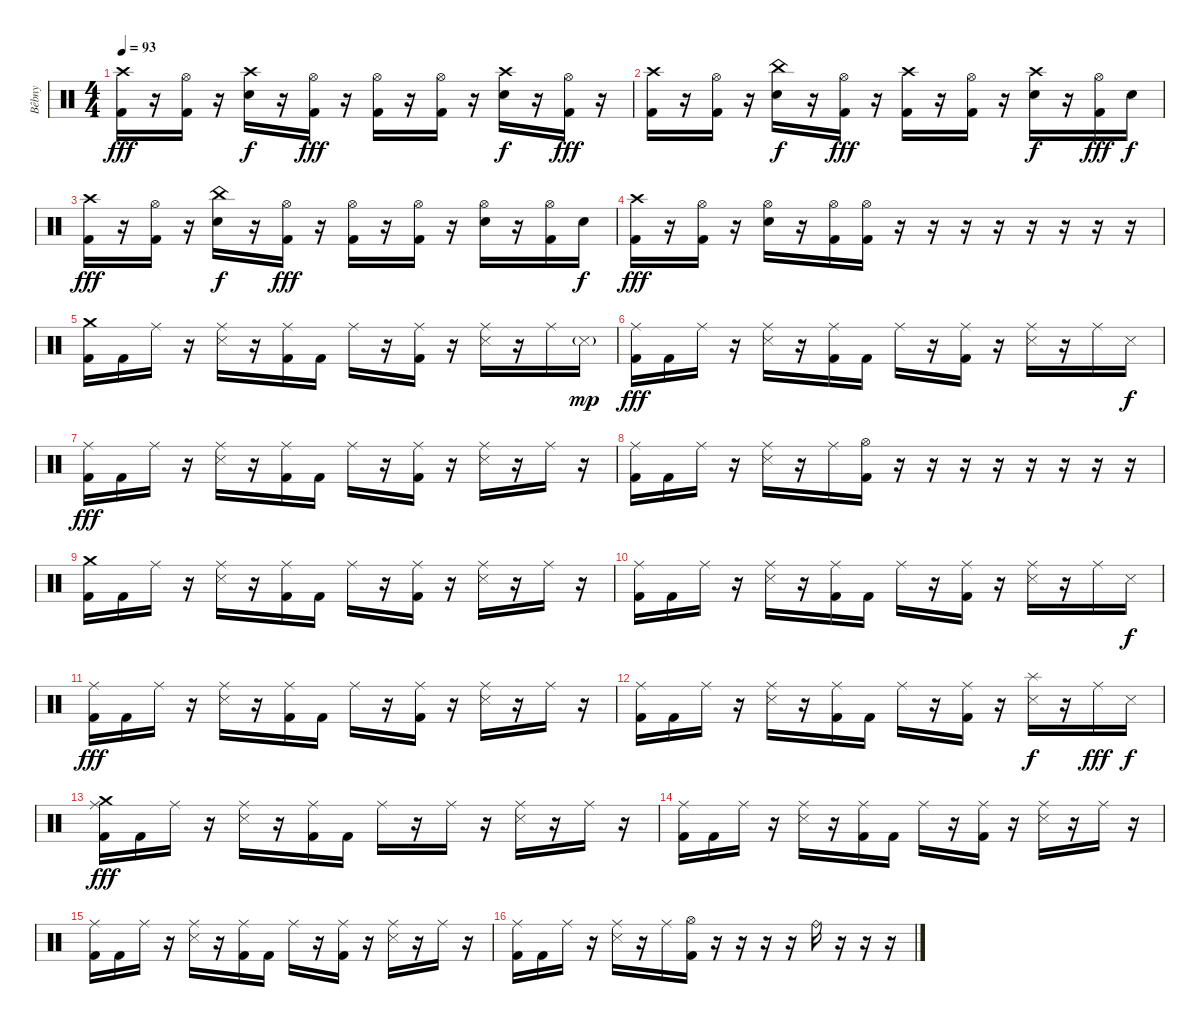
\track ("Bêbny" "Bêbny") {instrument percussion}
\staff {score}
\articulation defaults
\ts (4 4)
\tempo 93
\clef neutral
\ks c
("Crash high (hit)" "Kick (hit) 2").16{dy fff} r.16 ("Hi-Hat (open)" "Kick (hit) 2").16 r.16 ("Crash high (hit)" "Electric Snare (hit)").16{dy f} r.16 ("Hi-Hat (open)" "Kick (hit) 2").16{dy fff} r.16 ("Hi-Hat (open)" "Kick (hit) 2").16 r.16 ("Hi-Hat (open)" "Kick (hit) 2").16 r.16 ("Crash high (hit)" "Electric Snare (hit)").16{dy f} r.16 ("Hi-Hat (open)" "Kick (hit) 2").16{dy fff} r.16 |
("Crash high (hit)" "Kick (hit) 2").16 r.16 ("Hi-Hat (open)" "Kick (hit) 2").16 r.16 ("China (hit)" "Electric Snare (hit)").16{dy f} r.16 ("Hi-Hat (open)" "Kick (hit) 2").16{dy fff} r.16 ("Crash high (hit)" "Kick (hit) 2").16 r.16 ("Hi-Hat (open)" "Kick (hit) 2").16 r.16 ("Crash high (hit)" "Electric Snare (hit)").16{dy f} r.16 ("Hi-Hat (open)" "Kick (hit) 2").16{dy fff} "Electric Snare (hit)".16{dy f} |
("Crash high (hit)" "Kick (hit) 2").16{dy fff} r.16 ("Hi-Hat (open)" "Kick (hit) 2").16 r.16 ("China (hit)" "Electric Snare (hit)").16{dy f} r.16 ("Hi-Hat (open)" "Kick (hit) 2").16{dy fff} r.16 ("Hi-Hat (open)" "Kick (hit) 2").16 r.16 ("Hi-Hat (open)" "Kick (hit) 2").16 r.16 ("Hi-Hat (open)" "Electric Snare (hit)").16 r.16 ("Hi-Hat (open)" "Kick (hit) 2").16 "Electric Snare (hit)".16{dy f} |
("Crash high (hit)" "Kick (hit) 2").16{dy fff} r.16 ("Hi-Hat (open)" "Kick (hit) 2").16 r.16 ("Hi-Hat (open)" "Electric Snare (hit)").16 r.16 ("Hi-Hat (open)" "Kick (hit) 2").16 ("Hi-Hat (open)" "Kick (hit) 2").16 r.16 r.16 r.16 r.16 r.16 r.16 r.16 r.16 |
("Crash medium (hit)" "Kick (hit) 2").16 "Kick (hit) 2".16 "Ride (middle)".16 r.16 ("Ride (middle)" "Snare (side stick) 3").16 r.16 ("Ride (middle)" "Kick (hit) 2").16 "Kick (hit) 2".16 "Ride (middle)".16 r.16 ("Ride (middle)" "Kick (hit) 2").16 r.16 ("Ride (middle)" "Snare (side stick) 3").16 r.16 "Ride (middle)".16 "Snare (side stick) 3"{g}.16{dy mp} |
("Ride (middle)" "Kick (hit) 2").16{dy fff} "Kick (hit) 2".16 "Ride (middle)".16 r.16 ("Ride (middle)" "Snare (side stick) 3").16 r.16 ("Ride (middle)" "Kick (hit) 2").16 "Kick (hit) 2".16 "Ride (middle)".16 r.16 ("Ride (middle)" "Kick (hit) 2").16 r.16 ("Ride (middle)" "Snare (side stick) 3").16 r.16 "Ride (middle)".16 "Snare (side stick) 3".16{dy f} |
("Ride (middle)" "Kick (hit) 2").16{dy fff} "Kick (hit) 2".16 "Ride (middle)".16 r.16 ("Ride (middle)" "Snare (side stick) 3").16 r.16 ("Ride (middle)" "Kick (hit) 2").16 "Kick (hit) 2".16 "Ride (middle)".16 r.16 ("Ride (middle)" "Kick (hit) 2").16 r.16 ("Ride (middle)" "Snare (side stick) 3").16 r.16 "Ride (middle)".16 r.16 |
("Ride (middle)" "Kick (hit) 2").16 "Kick (hit) 2".16 "Ride (middle)".16 r.16 ("Ride (middle)" "Snare (side stick) 3").16 r.16 "Ride (middle)".16 ("Hi-Hat (open)" "Kick (hit) 2").16 r.16 r.16 r.16 r.16 r.16 r.16 r.16 r.16 |
("Crash medium (hit)" "Kick (hit) 2").16 "Kick (hit) 2".16 "Ride (middle)".16 r.16 ("Ride (middle)" "Snare (side stick) 3").16 r.16 ("Ride (middle)" "Kick (hit) 2").16 "Kick (hit) 2".16 "Ride (middle)".16 r.16 ("Ride (middle)" "Kick (hit) 2").16 r.16 ("Ride (middle)" "Snare (side stick) 3").16 r.16 "Ride (middle)".16 r.16 |
("Ride (middle)" "Kick (hit) 2").16 "Kick (hit) 2".16 "Ride (middle)".16 r.16 ("Ride (middle)" "Snare (side stick) 3").16 r.16 ("Ride (middle)" "Kick (hit) 2").16 "Kick (hit) 2".16 "Ride (middle)".16 r.16 ("Ride (middle)" "Kick (hit) 2").16 r.16 ("Ride (middle)" "Snare (side stick) 3").16 r.16 "Ride (middle)".16 "Snare (side stick) 3".16{dy f} |
("Ride (middle)" "Kick (hit) 2").16{dy fff} "Kick (hit) 2".16 "Ride (middle)".16 r.16 ("Ride (middle)" "Snare (side stick) 3").16 r.16 ("Ride (middle)" "Kick (hit) 2").16 "Kick (hit) 2".16 "Ride (middle)".16 r.16 ("Ride (middle)" "Kick (hit) 2").16 r.16 ("Ride (middle)" "Snare (side stick) 3").16 r.16 "Ride (middle)".16 r.16 |
("Ride (middle)" "Kick (hit) 2").16 "Kick (hit) 2".16 "Ride (middle)".16 r.16 ("Ride (middle)" "Snare (side stick) 3").16 r.16 ("Ride (middle)" "Kick (hit) 2").16 "Kick (hit) 2".16 "Ride (middle)".16 r.16 ("Ride (middle)" "Kick (hit) 2").16 r.16 ("Splash (hit)" "Snare (side stick) 3").16{dy f} r.16 "Ride (middle)".16{dy fff} "Snare (side stick) 3".16{dy f} |
("Crash medium (hit)" "Ride (middle)" "Kick (hit) 2").16{dy fff} "Kick (hit) 2".16 "Ride (middle)".16 r.16 ("Ride (middle)" "Snare (side stick) 3").16 r.16 ("Ride (middle)" "Kick (hit) 2").16 "Kick (hit) 2".16 "Ride (middle)".16 r.16 "Ride (middle)".16 r.16 ("Ride (middle)" "Snare (side stick) 3").16 r.16 "Ride (middle)".16 r.16 |
("Ride (middle)" "Kick (hit) 2").16 "Kick (hit) 2".16 "Ride (middle)".16 r.16 ("Ride (middle)" "Snare (side stick) 3").16 r.16 ("Ride (middle)" "Kick (hit) 2").16 "Kick (hit) 2".16 "Ride (middle)".16 r.16 ("Ride (middle)" "Kick (hit) 2").16 r.16 ("Ride (middle)" "Snare (side stick) 3").16 r.16 "Ride (middle)".16 r.16 |
("Ride (middle)" "Kick (hit) 2").16 "Kick (hit) 2".16 "Ride (middle)".16 r.16 ("Ride (middle)" "Snare (side stick) 3").16 r.16 ("Ride (middle)" "Kick (hit) 2").16 "Kick (hit) 2".16 "Ride (middle)".16 r.16 ("Ride (middle)" "Kick (hit) 2").16 r.16 ("Ride (middle)" "Snare (side stick) 3").16 r.16 "Ride (middle)".16 r.16 |
("Ride (middle)" "Kick (hit) 2").16 "Kick (hit) 2".16 "Ride (middle)".16 r.16 ("Ride (middle)" "Snare (side stick) 3").16 r.16 "Ride (middle)".16 ("Hi-Hat (open)" "Kick (hit) 2").16 r.16 r.16 r.16 r.16 "Ride (bell)".16 r.16 r.16 r.16
